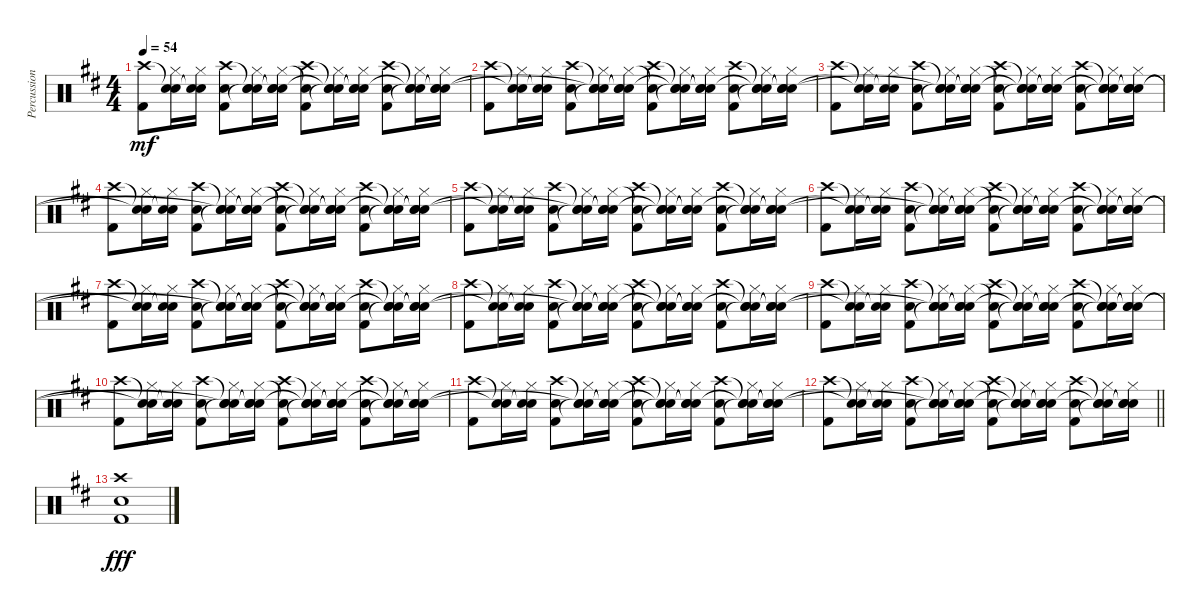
\track ("Percussion" "Percussion") {instrument percussion}
\staff {score}
\articulation defaults
\ts (4 4)
\tempo 54
\clef neutral
\ks d
("Crash high (hit)" "Kick (hit) 2").8{dy mf} ("Snare (hit)"{t} "Hi-Hat (closed)" "Snare (hit)"{t}).16 ("Snare (hit)"{t} "Hi-Hat (closed)" "Snare (hit)"{t}).16 ("Crash high (hit)" "Snare (hit) 2" "Kick (hit) 2").8 ("Snare (hit)"{t} "Hi-Hat (closed)" "Snare (hit)"{t} "Snare (hit)").16 ("Snare (hit)"{t} "Hi-Hat (closed)" "Snare (hit)"{t} "Snare (hit)"{t}).16 ("Crash high (hit)" "Snare (hit)"{t} "Kick (hit) 2").8 ("Snare (hit)"{t} "Hi-Hat (closed)" "Snare (hit)"{t} "Snare (hit)"{t}).16 ("Snare (hit)"{t} "Hi-Hat (closed)" "Snare (hit)"{t} "Snare (hit)"{t}).16 ("Crash high (hit)" "Snare (hit) 2" "Kick (hit) 2").8 ("Snare (hit)"{t} "Hi-Hat (closed)" "Snare (hit)"{t} "Snare (hit)"{t}).16 ("Snare (hit)"{t} "Hi-Hat (closed)" "Snare (hit)"{t} "Snare (hit)"{t}).16 |
("Crash high (hit)" "Kick (hit) 2").8 ("Snare (hit)"{t} "Hi-Hat (closed)" "Snare (hit)"{t}).16 ("Snare (hit)"{t} "Hi-Hat (closed)" "Snare (hit)"{t}).16 ("Crash high (hit)" "Snare (hit) 2" "Kick (hit) 2").8 ("Snare (hit)"{t} "Hi-Hat (closed)" "Snare (hit)"{t} "Snare (hit)"{t}).16 ("Snare (hit)"{t} "Hi-Hat (closed)" "Snare (hit)"{t} "Snare (hit)"{t}).16 ("Crash high (hit)" "Snare (hit)"{t} "Kick (hit) 2").8 ("Snare (hit)"{t} "Hi-Hat (closed)" "Snare (hit)"{t} "Snare (hit)"{t}).16 ("Snare (hit)"{t} "Hi-Hat (closed)" "Snare (hit)"{t} "Snare (hit)"{t}).16 ("Crash high (hit)" "Snare (hit) 2" "Kick (hit) 2").8 ("Snare (hit)"{t} "Hi-Hat (closed)" "Snare (hit)"{t} "Snare (hit)"{t}).16 ("Snare (hit)"{t} "Hi-Hat (closed)" "Snare (hit)"{t} "Snare (hit)"{t}).16 |
("Crash high (hit)" "Kick (hit) 2").8 ("Snare (hit)"{t} "Hi-Hat (closed)" "Snare (hit)"{t}).16 ("Snare (hit)"{t} "Hi-Hat (closed)" "Snare (hit)"{t}).16 ("Crash high (hit)" "Snare (hit) 2" "Kick (hit) 2").8 ("Snare (hit)"{t} "Hi-Hat (closed)" "Snare (hit)"{t} "Snare (hit)"{t}).16 ("Snare (hit)"{t} "Hi-Hat (closed)" "Snare (hit)"{t} "Snare (hit)"{t}).16 ("Crash high (hit)" "Snare (hit)"{t} "Kick (hit) 2").8 ("Snare (hit)"{t} "Hi-Hat (closed)" "Snare (hit)"{t} "Snare (hit)"{t}).16 ("Snare (hit)"{t} "Hi-Hat (closed)" "Snare (hit)"{t} "Snare (hit)"{t}).16 ("Crash high (hit)" "Snare (hit) 2" "Kick (hit) 2").8 ("Snare (hit)"{t} "Hi-Hat (closed)" "Snare (hit)"{t} "Snare (hit)"{t}).16 ("Snare (hit)"{t} "Hi-Hat (closed)" "Snare (hit)"{t} "Snare (hit)"{t}).16 |
("Crash high (hit)" "Kick (hit) 2").8 ("Snare (hit)"{t} "Hi-Hat (closed)" "Snare (hit)"{t}).16 ("Snare (hit)"{t} "Hi-Hat (closed)" "Snare (hit)"{t}).16 ("Crash high (hit)" "Snare (hit) 2" "Kick (hit) 2").8 ("Snare (hit)"{t} "Hi-Hat (closed)" "Snare (hit)"{t} "Snare (hit)"{t}).16 ("Snare (hit)"{t} "Hi-Hat (closed)" "Snare (hit)"{t} "Snare (hit)"{t}).16 ("Crash high (hit)" "Snare (hit)"{t} "Kick (hit) 2").8 ("Snare (hit)"{t} "Hi-Hat (closed)" "Snare (hit)"{t} "Snare (hit)"{t}).16 ("Snare (hit)"{t} "Hi-Hat (closed)" "Snare (hit)"{t} "Snare (hit)"{t}).16 ("Crash high (hit)" "Snare (hit) 2" "Kick (hit) 2").8 ("Snare (hit)"{t} "Hi-Hat (closed)" "Snare (hit)"{t} "Snare (hit)"{t}).16 ("Snare (hit)"{t} "Hi-Hat (closed)" "Snare (hit)"{t} "Snare (hit)"{t}).16 |
("Crash high (hit)" "Kick (hit) 2").8 ("Snare (hit)"{t} "Hi-Hat (closed)" "Snare (hit)"{t}).16 ("Snare (hit)"{t} "Hi-Hat (closed)" "Snare (hit)"{t}).16 ("Crash high (hit)" "Snare (hit) 2" "Kick (hit) 2").8 ("Snare (hit)"{t} "Hi-Hat (closed)" "Snare (hit)"{t} "Snare (hit)"{t}).16 ("Snare (hit)"{t} "Hi-Hat (closed)" "Snare (hit)"{t} "Snare (hit)"{t}).16 ("Crash high (hit)" "Snare (hit)"{t} "Kick (hit) 2").8 ("Snare (hit)"{t} "Hi-Hat (closed)" "Snare (hit)"{t} "Snare (hit)"{t}).16 ("Snare (hit)"{t} "Hi-Hat (closed)" "Snare (hit)"{t} "Snare (hit)"{t}).16 ("Crash high (hit)" "Snare (hit) 2" "Kick (hit) 2").8 ("Snare (hit)"{t} "Hi-Hat (closed)" "Snare (hit)"{t} "Snare (hit)"{t}).16 ("Snare (hit)"{t} "Hi-Hat (closed)" "Snare (hit)"{t} "Snare (hit)"{t}).16 |
("Crash high (hit)" "Kick (hit) 2").8 ("Snare (hit)"{t} "Hi-Hat (closed)" "Snare (hit)"{t}).16 ("Snare (hit)"{t} "Hi-Hat (closed)" "Snare (hit)"{t}).16 ("Crash high (hit)" "Snare (hit) 2" "Kick (hit) 2").8 ("Snare (hit)"{t} "Hi-Hat (closed)" "Snare (hit)"{t} "Snare (hit)"{t}).16 ("Snare (hit)"{t} "Hi-Hat (closed)" "Snare (hit)"{t} "Snare (hit)"{t}).16 ("Crash high (hit)" "Snare (hit)"{t} "Kick (hit) 2").8 ("Snare (hit)"{t} "Hi-Hat (closed)" "Snare (hit)"{t} "Snare (hit)"{t}).16 ("Snare (hit)"{t} "Hi-Hat (closed)" "Snare (hit)"{t} "Snare (hit)"{t}).16 ("Crash high (hit)" "Snare (hit) 2" "Kick (hit) 2").8 ("Snare (hit)"{t} "Hi-Hat (closed)" "Snare (hit)"{t} "Snare (hit)"{t}).16 ("Snare (hit)"{t} "Hi-Hat (closed)" "Snare (hit)"{t} "Snare (hit)"{t}).16 |
("Crash high (hit)" "Kick (hit) 2").8 ("Snare (hit)"{t} "Hi-Hat (closed)" "Snare (hit)"{t}).16 ("Snare (hit)"{t} "Hi-Hat (closed)" "Snare (hit)"{t}).16 ("Crash high (hit)" "Snare (hit) 2" "Kick (hit) 2").8 ("Snare (hit)"{t} "Hi-Hat (closed)" "Snare (hit)"{t} "Snare (hit)"{t}).16 ("Snare (hit)"{t} "Hi-Hat (closed)" "Snare (hit)"{t} "Snare (hit)"{t}).16 ("Crash high (hit)" "Snare (hit)"{t} "Kick (hit) 2").8 ("Snare (hit)"{t} "Hi-Hat (closed)" "Snare (hit)"{t} "Snare (hit)"{t}).16 ("Snare (hit)"{t} "Hi-Hat (closed)" "Snare (hit)"{t} "Snare (hit)"{t}).16 ("Crash high (hit)" "Snare (hit) 2" "Kick (hit) 2").8 ("Snare (hit)"{t} "Hi-Hat (closed)" "Snare (hit)"{t} "Snare (hit)"{t}).16 ("Snare (hit)"{t} "Hi-Hat (closed)" "Snare (hit)"{t} "Snare (hit)"{t}).16 |
("Crash high (hit)" "Kick (hit) 2").8 ("Snare (hit)"{t} "Hi-Hat (closed)" "Snare (hit)"{t}).16 ("Snare (hit)"{t} "Hi-Hat (closed)" "Snare (hit)"{t}).16 ("Crash high (hit)" "Snare (hit) 2" "Kick (hit) 2").8 ("Snare (hit)"{t} "Hi-Hat (closed)" "Snare (hit)"{t} "Snare (hit)"{t}).16 ("Snare (hit)"{t} "Hi-Hat (closed)" "Snare (hit)"{t} "Snare (hit)"{t}).16 ("Crash high (hit)" "Snare (hit)"{t} "Kick (hit) 2").8 ("Snare (hit)"{t} "Hi-Hat (closed)" "Snare (hit)"{t} "Snare (hit)"{t}).16 ("Snare (hit)"{t} "Hi-Hat (closed)" "Snare (hit)"{t} "Snare (hit)"{t}).16 ("Crash high (hit)" "Snare (hit) 2" "Kick (hit) 2").8 ("Snare (hit)"{t} "Hi-Hat (closed)" "Snare (hit)"{t} "Snare (hit)"{t}).16 ("Snare (hit)"{t} "Hi-Hat (closed)" "Snare (hit)"{t} "Snare (hit)"{t}).16 |
("Crash high (hit)" "Kick (hit) 2").8 ("Snare (hit)"{t} "Hi-Hat (closed)" "Snare (hit)"{t}).16 ("Snare (hit)"{t} "Hi-Hat (closed)" "Snare (hit)"{t}).16 ("Crash high (hit)" "Snare (hit) 2" "Kick (hit) 2").8 ("Snare (hit)"{t} "Hi-Hat (closed)" "Snare (hit)"{t} "Snare (hit)"{t}).16 ("Snare (hit)"{t} "Hi-Hat (closed)" "Snare (hit)"{t} "Snare (hit)"{t}).16 ("Crash high (hit)" "Snare (hit)"{t} "Kick (hit) 2").8 ("Snare (hit)"{t} "Hi-Hat (closed)" "Snare (hit)"{t} "Snare (hit)"{t}).16 ("Snare (hit)"{t} "Hi-Hat (closed)" "Snare (hit)"{t} "Snare (hit)"{t}).16 ("Crash high (hit)" "Snare (hit) 2" "Kick (hit) 2").8 ("Snare (hit)"{t} "Hi-Hat (closed)" "Snare (hit)"{t} "Snare (hit)"{t}).16 ("Snare (hit)"{t} "Hi-Hat (closed)" "Snare (hit)"{t} "Snare (hit)"{t}).16 |
("Crash high (hit)" "Kick (hit) 2").8 ("Snare (hit)"{t} "Hi-Hat (closed)" "Snare (hit)"{t}).16 ("Snare (hit)"{t} "Hi-Hat (closed)" "Snare (hit)"{t}).16 ("Crash high (hit)" "Snare (hit) 2" "Kick (hit) 2").8 ("Snare (hit)"{t} "Hi-Hat (closed)" "Snare (hit)"{t} "Snare (hit)"{t}).16 ("Snare (hit)"{t} "Hi-Hat (closed)" "Snare (hit)"{t} "Snare (hit)"{t}).16 ("Crash high (hit)" "Snare (hit)"{t} "Kick (hit) 2").8 ("Snare (hit)"{t} "Hi-Hat (closed)" "Snare (hit)"{t} "Snare (hit)"{t}).16 ("Snare (hit)"{t} "Hi-Hat (closed)" "Snare (hit)"{t} "Snare (hit)"{t}).16 ("Crash high (hit)" "Snare (hit) 2" "Kick (hit) 2").8 ("Snare (hit)"{t} "Hi-Hat (closed)" "Snare (hit)"{t} "Snare (hit)"{t}).16 ("Snare (hit)"{t} "Hi-Hat (closed)" "Snare (hit)"{t} "Snare (hit)"{t}).16 |
("Crash high (hit)" "Kick (hit) 2").8 ("Snare (hit)"{t} "Hi-Hat (closed)" "Snare (hit)"{t}).16 ("Snare (hit)"{t} "Hi-Hat (closed)" "Snare (hit)"{t}).16 ("Crash high (hit)" "Snare (hit) 2" "Kick (hit) 2").8 ("Snare (hit)"{t} "Hi-Hat (closed)" "Snare (hit)"{t} "Snare (hit)"{t}).16 ("Snare (hit)"{t} "Hi-Hat (closed)" "Snare (hit)"{t} "Snare (hit)"{t}).16 ("Crash high (hit)" "Snare (hit)"{t} "Kick (hit) 2").8 ("Snare (hit)"{t} "Hi-Hat (closed)" "Snare (hit)"{t} "Snare (hit)"{t}).16 ("Snare (hit)"{t} "Hi-Hat (closed)" "Snare (hit)"{t} "Snare (hit)"{t}).16 ("Crash high (hit)" "Snare (hit) 2" "Kick (hit) 2").8 ("Snare (hit)"{t} "Hi-Hat (closed)" "Snare (hit)"{t} "Snare (hit)"{t}).16 ("Snare (hit)"{t} "Hi-Hat (closed)" "Snare (hit)"{t} "Snare (hit)"{t}).16 |
\barLineRight lightlight
("Crash high (hit)" "Kick (hit) 2").8 ("Snare (hit)"{t} "Hi-Hat (closed)" "Snare (hit)"{t}).16 ("Snare (hit)"{t} "Hi-Hat (closed)" "Snare (hit)"{t}).16 ("Crash high (hit)" "Snare (hit) 2" "Kick (hit) 2").8 ("Snare (hit)"{t} "Hi-Hat (closed)" "Snare (hit)"{t} "Snare (hit)"{t}).16 ("Snare (hit)"{t} "Hi-Hat (closed)" "Snare (hit)"{t} "Snare (hit)"{t}).16 ("Crash high (hit)" "Snare (hit)"{t} "Kick (hit) 2").8 ("Snare (hit)"{t} "Hi-Hat (closed)" "Snare (hit)"{t} "Snare (hit)"{t}).16 ("Snare (hit)"{t} "Hi-Hat (closed)" "Snare (hit)"{t} "Snare (hit)"{t}).16 ("Crash high (hit)" "Snare (hit) 2" "Kick (hit) 2").8 ("Snare (hit)"{t} "Hi-Hat (closed)" "Snare (hit)"{t} "Snare (hit)"{t}).16 ("Snare (hit)"{t} "Hi-Hat (closed)" "Snare (hit)"{t} "Snare (hit)"{t}).16 |
("Crash high (hit)" "Snare (hit) 2" "Kick (hit) 2").1{dy fff}
